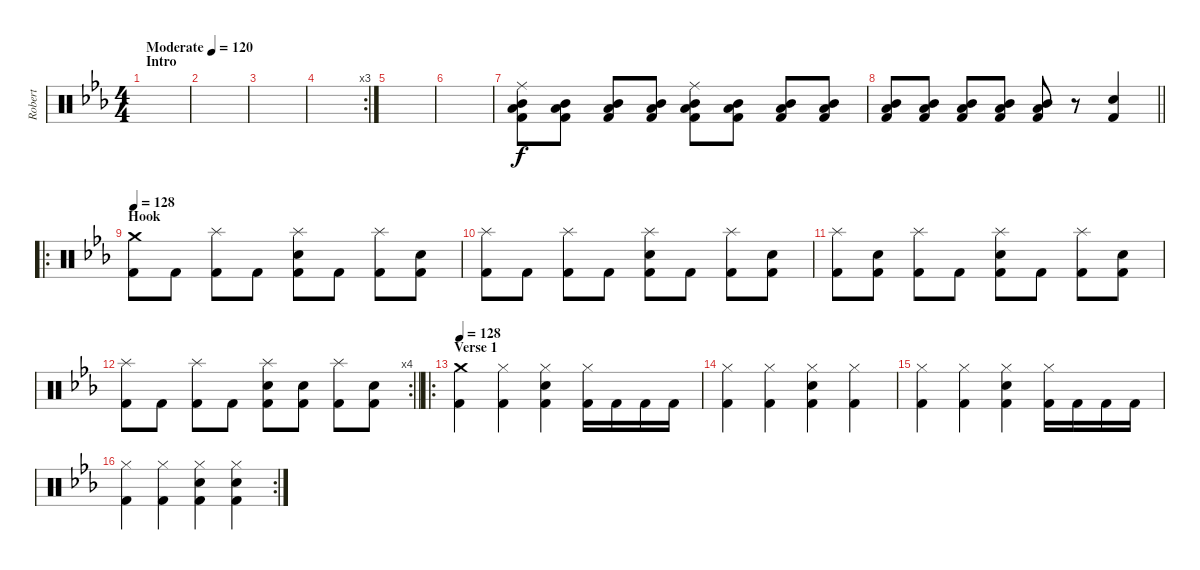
\track ("Robert" "Robert") {instrument percussion}
\staff {score}
\articulation defaults
\ts (4 4)
\section ("" "Intro")
\tempo (120 "Moderate")
\clef neutral
\ks cminor
|
|
|
\rc 3
|
|
|
("Ride (middle)" "Low Tom (hit)" "Mid Tom (hit)" "Kick (hit) 2").8{volume 13} ("Low Tom (hit)" "Mid Tom (hit)" "Kick (hit) 2").8 ("Low Tom (hit)" "Mid Tom (hit)" "Kick (hit) 2").8 ("Low Tom (hit)" "Mid Tom (hit)" "Kick (hit) 2").8 ("Ride (middle)" "Low Tom (hit)" "Mid Tom (hit)" "Kick (hit) 2").8 ("Low Tom (hit)" "Mid Tom (hit)" "Kick (hit) 2").8 ("Low Tom (hit)" "Mid Tom (hit)" "Kick (hit) 2").8 ("Low Tom (hit)" "Mid Tom (hit)" "Kick (hit) 2").8 |
\barLineRight lightlight
("Low Tom (hit)" "Mid Tom (hit)" "Kick (hit) 2").8 ("Low Tom (hit)" "Mid Tom (hit)" "Kick (hit) 2").8 ("Low Tom (hit)" "Mid Tom (hit)" "Kick (hit) 2").8 ("Low Tom (hit)" "Mid Tom (hit)" "Kick (hit) 2").8 ("Low Tom (hit)" "Mid Tom (hit)" "Kick (hit) 2").8 r.8 ("Snare (hit) 2" "Kick (hit) 2").4 |
\ro
\section ("" "Hook")
\tempo 128
("Crash medium (hit)" "Kick (hit) 2").8 "Kick (hit) 2".8 ("Splash (hit)" "Kick (hit) 2").8 "Kick (hit) 2".8 ("Splash (hit)" "Snare (hit) 2" "Kick (hit) 2").8 "Kick (hit) 2".8 ("Splash (hit)" "Kick (hit) 2").8 ("Snare (hit) 2" "Kick (hit) 2").8 |
("Splash (hit)" "Kick (hit) 2").8 "Kick (hit) 2".8 ("Splash (hit)" "Kick (hit) 2").8 "Kick (hit) 2".8 ("Splash (hit)" "Snare (hit) 2" "Kick (hit) 2").8 "Kick (hit) 2".8 ("Splash (hit)" "Kick (hit) 2").8 ("Snare (hit) 2" "Kick (hit) 2").8 |
("Splash (hit)" "Kick (hit) 2").8 ("Snare (hit) 2" "Kick (hit) 2").8 ("Splash (hit)" "Kick (hit) 2").8 "Kick (hit) 2".8 ("Splash (hit)" "Snare (hit) 2" "Kick (hit) 2").8 "Kick (hit) 2".8 ("Splash (hit)" "Kick (hit) 2").8 ("Snare (hit) 2" "Kick (hit) 2").8 |
\rc 4
\barLineRight lightlight
("Splash (hit)" "Kick (hit) 2").8 "Kick (hit) 2".8 ("Splash (hit)" "Kick (hit) 2").8 "Kick (hit) 2".8 ("Splash (hit)" "Snare (hit) 2" "Kick (hit) 2").8 ("Snare (hit) 2" "Kick (hit) 2").8 ("Splash (hit)" "Kick (hit) 2").8 ("Snare (hit) 2" "Kick (hit) 2").8 |
\ro
\section ("" "Verse 1")
\tempo 128
("Crash medium (hit)" "Kick (hit) 2").4 ("Hi-Hat (closed)" "Kick (hit) 2").4 ("Hi-Hat (closed)" "Snare (hit) 2" "Kick (hit) 2").4 ("Hi-Hat (closed)" "Kick (hit) 2").16 "Kick (hit) 2".16 "Kick (hit) 2".16 "Kick (hit) 2".16 |
("Hi-Hat (closed)" "Kick (hit) 2").4 ("Hi-Hat (closed)" "Kick (hit) 2").4 ("Hi-Hat (closed)" "Snare (hit) 2" "Kick (hit) 2").4 ("Hi-Hat (closed)" "Kick (hit) 2").4 |
("Hi-Hat (closed)" "Kick (hit) 2").4 ("Hi-Hat (closed)" "Kick (hit) 2").4 ("Hi-Hat (closed)" "Snare (hit) 2" "Kick (hit) 2").4 ("Hi-Hat (closed)" "Kick (hit) 2").16 "Kick (hit) 2".16 "Kick (hit) 2".16 "Kick (hit) 2".16 |
\rc 2
("Hi-Hat (closed)" "Kick (hit) 2").4 ("Hi-Hat (closed)" "Kick (hit) 2").4 ("Hi-Hat (closed)" "Snare (hit) 2" "Kick (hit) 2").4 ("Hi-Hat (closed)" "Snare (hit) 2" "Kick (hit) 2").4
